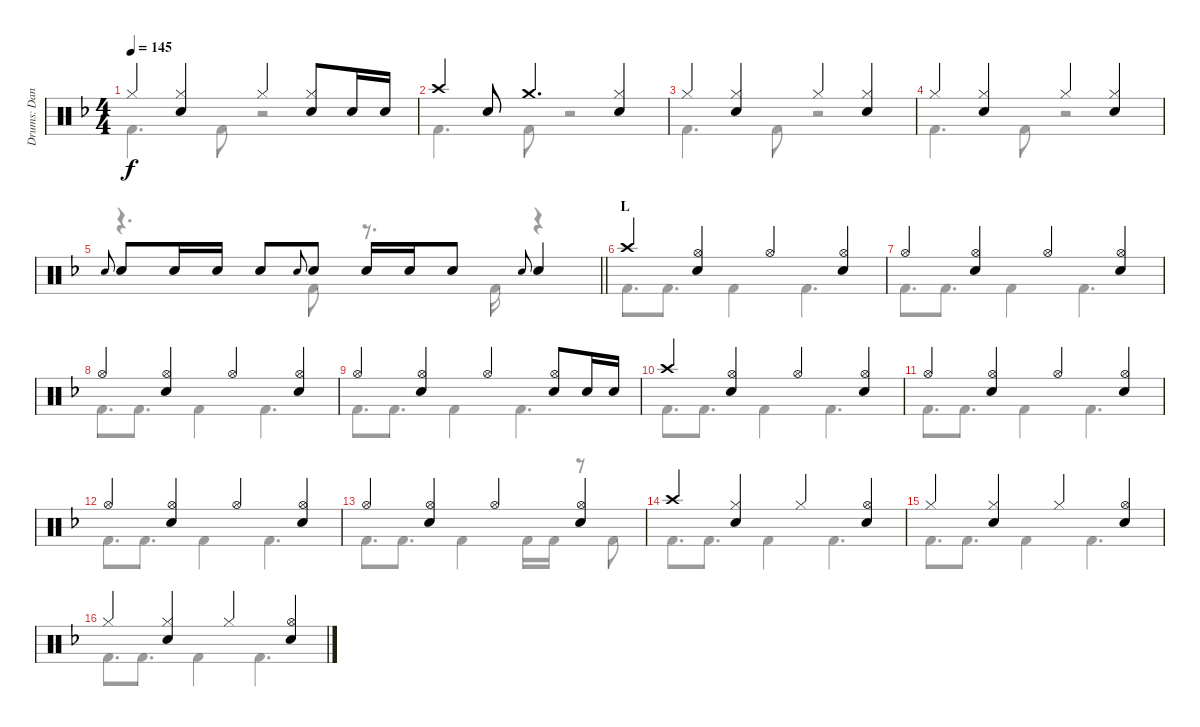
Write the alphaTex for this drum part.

\track ("Drums: Dana" "Drums: Dan") {instrument percussion}
\staff {score}
\articulation defaults
\voice
\ts (4 4)
\tempo 145
\clef neutral
\ks f "Hi-Hat (closed)".4{dy f}
("Hi-Hat (closed)" "Snare (hit) 2").4 "Hi-Hat (closed)".4 ("Hi-Hat (closed)" "Snare (hit) 2").8 "Snare (hit) 2".16 "Snare (hit) 2".16 |
"Crash high (hit)".4 "Snare (hit) 2".8 "Crash medium (hit)".4{d} ("Hi-Hat (closed)" "Snare (hit) 2").4 |
"Hi-Hat (closed)".4 ("Hi-Hat (closed)" "Snare (hit) 2").4 "Hi-Hat (closed)".4 ("Hi-Hat (closed)" "Snare (hit) 2").4 |
"Hi-Hat (closed)".4 ("Hi-Hat (closed)" "Snare (hit) 2").4 "Hi-Hat (closed)".4 ("Hi-Hat (closed)" "Snare (hit) 2").4 |
\barLineRight lightlight "Electric Snare (hit)".8{gr onbeat} "Snare (hit) 2".8 "Snare (hit) 2".16 "Snare (hit) 2".16 "Snare (hit) 2".8 "Electric Snare (hit)".8{gr onbeat} "Snare (hit) 2".8 "Snare (hit) 2".16 "Snare (hit) 2".16 "Snare (hit) 2".8 "Electric Snare (hit)".8{gr onbeat} "Snare (hit) 2".4
|
\section ("" "L")
"Crash high (hit)".4 ("Hi-Hat (open)" "Snare (hit) 2").4 "Hi-Hat (open)".4 ("Hi-Hat (open)" "Snare (hit) 2").4 |
"Hi-Hat (open)".4 ("Hi-Hat (open)" "Snare (hit) 2").4 "Hi-Hat (open)".4 ("Hi-Hat (open)" "Snare (hit) 2").4 |
"Hi-Hat (open)".4 ("Hi-Hat (open)" "Snare (hit) 2").4 "Hi-Hat (open)".4 ("Hi-Hat (open)" "Snare (hit) 2").4 |
"Hi-Hat (open)".4 ("Hi-Hat (open)" "Snare (hit) 2").4 "Hi-Hat (open)".4 ("Hi-Hat (open)" "Snare (hit) 2").8 "Snare (hit) 2".16 "Snare (hit) 2".16 |
"Crash high (hit)".4 ("Hi-Hat (open)" "Snare (hit) 2").4 "Hi-Hat (open)".4 ("Hi-Hat (open)" "Snare (hit) 2").4 |
"Hi-Hat (open)".4 ("Hi-Hat (open)" "Snare (hit) 2").4 "Hi-Hat (open)".4 ("Hi-Hat (open)" "Snare (hit) 2").4 |
"Hi-Hat (open)".4 ("Hi-Hat (open)" "Snare (hit) 2").4 "Hi-Hat (open)".4 ("Hi-Hat (open)" "Snare (hit) 2").4 |
"Hi-Hat (open)".4 ("Hi-Hat (open)" "Snare (hit) 2").4 "Hi-Hat (open)".4 ("Hi-Hat (open)" "Snare (hit) 2").4 |
"Crash high (hit)".4 ("Hi-Hat (closed)" "Snare (hit) 2").4 "Hi-Hat (closed)".4 ("Hi-Hat (open)" "Snare (hit) 2").4 |
"Hi-Hat (closed)".4 ("Hi-Hat (closed)" "Snare (hit) 2").4 "Hi-Hat (closed)".4 ("Hi-Hat (open)" "Snare (hit) 2").4 |
"Hi-Hat (closed)".4 ("Hi-Hat (closed)" "Snare (hit) 2").4 "Hi-Hat (closed)".4 ("Hi-Hat (open)" "Snare (hit) 2").4
\voice
\clef neutral
\ottava regular
\simile none
\ks f "Kick (hit) 2".4{d dy f} "Kick (hit) 2".8
r.2 |
"Kick (hit) 2".4{d} "Kick (hit) 2".8 r.2 |
"Kick (hit) 2".4{d} "Kick (hit) 2".8 r.2 |
"Kick (hit) 2".4{d} "Kick (hit) 2".8 r.2 |
\barLineRight lightlight
r.4{d} "Kick (hit) 2".8 r.8{d} "Kick (hit) 2".16 r.4 |
"Kick (hit) 2".8{d} "Kick (hit) 2".8{d} "Kick (hit) 2".4 "Kick (hit) 2".4{d} |
"Kick (hit) 2".8{d} "Kick (hit) 2".8{d} "Kick (hit) 2".4 "Kick (hit) 2".4{d} |
"Kick (hit) 2".8{d} "Kick (hit) 2".8{d} "Kick (hit) 2".4 "Kick (hit) 2".4{d} |
"Kick (hit) 2".8{d} "Kick (hit) 2".8{d} "Kick (hit) 2".4 "Kick (hit) 2".4{d} |
"Kick (hit) 2".8{d} "Kick (hit) 2".8{d} "Kick (hit) 2".4 "Kick (hit) 2".4{d} |
"Kick (hit) 2".8{d} "Kick (hit) 2".8{d} "Kick (hit) 2".4 "Kick (hit) 2".4{d} |
"Kick (hit) 2".8{d} "Kick (hit) 2".8{d} "Kick (hit) 2".4 "Kick (hit) 2".4{d} |
"Kick (hit) 2".8{d} "Kick (hit) 2".8{d} "Kick (hit) 2".4 "Kick (hit) 2".16 "Kick (hit) 2".16 r.8 "Kick (hit) 2".8 |
"Kick (hit) 2".8{d} "Kick (hit) 2".8{d} "Kick (hit) 2".4 "Kick (hit) 2".4{d} |
"Kick (hit) 2".8{d} "Kick (hit) 2".8{d} "Kick (hit) 2".4 "Kick (hit) 2".4{d} |
"Kick (hit) 2".8{d} "Kick (hit) 2".8{d} "Kick (hit) 2".4 "Kick (hit) 2".4{d}
